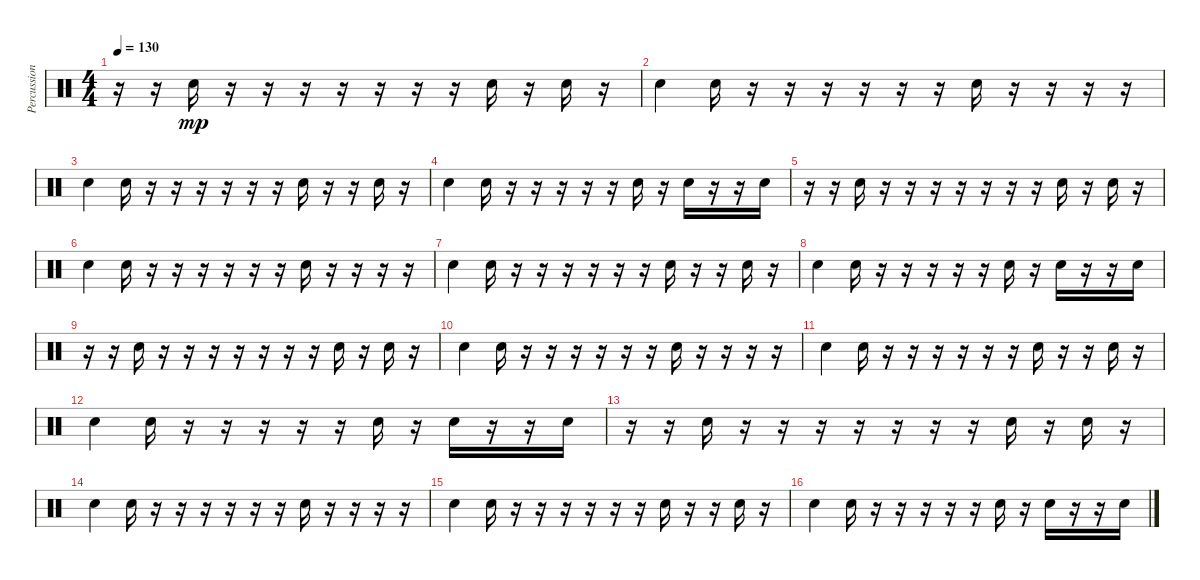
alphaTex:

\track ("Percussion" "Percussion") {instrument percussion}
\staff {score}
\articulation defaults
\ts (4 4)
\tempo 130
\clef neutral
\ks c
r.16{dy mp} r.16 "Snare (hit) 2".16 r.16 r.16 r.16 r.16 r.16 r.16 r.16 "Snare (hit) 2".16 r.16 "Snare (hit) 2".16 r.16 |
"Snare (hit) 2".4 "Snare (hit) 2".16 r.16 r.16 r.16 r.16 r.16 r.16 "Hand Clap (hit)".16 r.16 r.16 r.16 r.16 |
"Snare (hit) 2".4 "Snare (hit) 2".16 r.16 r.16 r.16 r.16 r.16 r.16 "Hand Clap (hit)".16 r.16 r.16 "Snare (hit) 2".16 r.16 |
"Snare (hit) 2".4 "Snare (hit) 2".16 r.16 r.16 r.16 r.16 r.16 "Snare (hit) 2".16 r.16 "Snare (hit) 2".16 r.16 r.16 "Snare (hit) 2".16 |
r.16 r.16 "Snare (hit) 2".16 r.16 r.16 r.16 r.16 r.16 r.16 r.16 "Snare (hit) 2".16 r.16 "Snare (hit) 2".16 r.16 |
"Snare (hit) 2".4 "Snare (hit) 2".16 r.16 r.16 r.16 r.16 r.16 r.16 "Hand Clap (hit)".16 r.16 r.16 r.16 r.16 |
"Snare (hit) 2".4 "Snare (hit) 2".16 r.16 r.16 r.16 r.16 r.16 r.16 "Hand Clap (hit)".16 r.16 r.16 "Snare (hit) 2".16 r.16 |
"Snare (hit) 2".4 "Snare (hit) 2".16 r.16 r.16 r.16 r.16 r.16 "Snare (hit) 2".16 r.16 "Snare (hit) 2".16 r.16 r.16 "Snare (hit) 2".16 |
r.16 r.16 "Snare (hit) 2".16 r.16 r.16 r.16 r.16 r.16 r.16 r.16 "Snare (hit) 2".16 r.16 "Snare (hit) 2".16 r.16 |
"Snare (hit) 2".4 "Snare (hit) 2".16 r.16 r.16 r.16 r.16 r.16 r.16 "Hand Clap (hit)".16 r.16 r.16 r.16 r.16 |
"Snare (hit) 2".4 "Snare (hit) 2".16 r.16 r.16 r.16 r.16 r.16 r.16 "Hand Clap (hit)".16 r.16 r.16 "Snare (hit) 2".16 r.16 |
"Snare (hit) 2".4 "Snare (hit) 2".16 r.16 r.16 r.16 r.16 r.16 "Snare (hit) 2".16 r.16 "Snare (hit) 2".16 r.16 r.16 "Snare (hit) 2".16 |
r.16 r.16 "Snare (hit) 2".16 r.16 r.16 r.16 r.16 r.16 r.16 r.16 "Snare (hit) 2".16 r.16 "Snare (hit) 2".16 r.16 |
"Snare (hit) 2".4 "Snare (hit) 2".16 r.16 r.16 r.16 r.16 r.16 r.16 "Hand Clap (hit)".16 r.16 r.16 r.16 r.16 |
"Snare (hit) 2".4 "Snare (hit) 2".16 r.16 r.16 r.16 r.16 r.16 r.16 "Hand Clap (hit)".16 r.16 r.16 "Snare (hit) 2".16 r.16 |
"Snare (hit) 2".4 "Snare (hit) 2".16 r.16 r.16 r.16 r.16 r.16 "Snare (hit) 2".16 r.16 "Snare (hit) 2".16 r.16 r.16 "Snare (hit) 2".16
